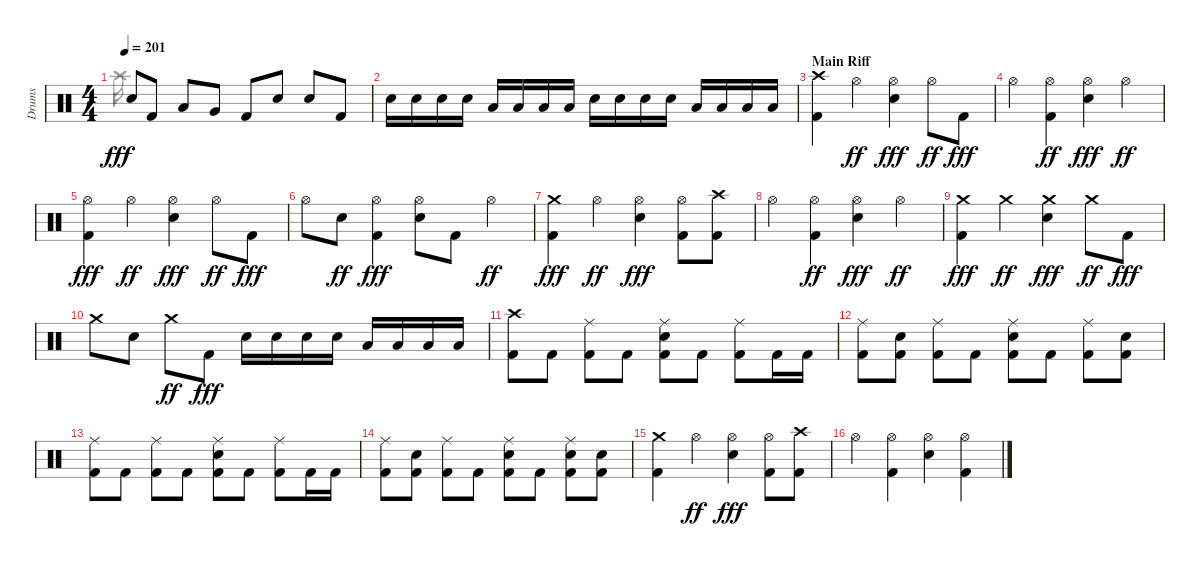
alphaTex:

\track ("Drums" "Drums") {instrument percussion}
\staff {score}
\articulation defaults
\voice
\ts (4 4)
\tempo 201
\clef neutral
\ks aminor "Snare (hit) 2".8{dy fff} "Kick (hit) 2".8 "Low Tom (hit)".8 "Very Low Tom (hit)".8 "Kick (hit) 2".8 "Snare (hit) 2".8 "Snare (hit) 2".8 "Kick (hit) 2".8
|
"Snare (hit) 2".16 "Snare (hit) 2".16 "Snare (hit) 2".16 "Snare (hit) 2".16 "Low Tom (hit)".16 "Low Tom (hit)".16 "Low Tom (hit)".16 "Low Tom (hit)".16 "Snare (hit) 2".16 "Snare (hit) 2".16 "Snare (hit) 2".16 "Snare (hit) 2".16 "Low Floor Tom (hit)".16 "Low Floor Tom (hit)".16 "Low Floor Tom (hit)".16 "Low Floor Tom (hit)".16 |
\section ("" "Main Riff")
("Kick (hit) 2" "Crash high (hit)").4 "Hi-Hat (open)".4{dy ff} ("Snare (hit) 2" "Hi-Hat (open)").4{dy fff} "Hi-Hat (open)".8{dy ff} "Kick (hit) 2".8{dy fff} |
"Hi-Hat (open)".4 ("Kick (hit) 2" "Hi-Hat (open)").4{dy ff} ("Hi-Hat (open)" "Snare (hit) 2").4{dy fff} "Hi-Hat (open)".4{dy ff} |
("Kick (hit) 2" "Hi-Hat (open)").4{dy fff} "Hi-Hat (open)".4{dy ff} ("Snare (hit) 2" "Hi-Hat (open)").4{dy fff} "Hi-Hat (open)".8{dy ff} "Kick (hit) 2".8{dy fff} |
"Hi-Hat (open)".8 "Snare (hit) 2".8{dy ff} ("Hi-Hat (open)" "Kick (hit) 2").4{dy fff} ("Snare (hit) 2" "Hi-Hat (open)").8 "Kick (hit) 2".8 "Hi-Hat (open)".4{dy ff} |
("Kick (hit) 2" "Crash medium (hit)").4{dy fff} "Hi-Hat (open)".4{dy ff} ("Snare (hit) 2" "Hi-Hat (open)").4{dy fff} ("Kick (hit) 2" "Hi-Hat (open)").8 ("Crash high (hit)" "Kick (hit) 2").8 |
"Hi-Hat (open)".4 ("Hi-Hat (open)" "Kick (hit) 2").4{dy ff} ("Snare (hit) 2" "Hi-Hat (open)").4{dy fff} "Hi-Hat (open)".4{dy ff} |
("Crash medium (hit)" "Kick (hit) 2").4{dy fff} "Crash medium (hit)".4{dy ff} ("Snare (hit) 2" "Crash medium (hit)").4{dy fff} "Crash medium (hit)".8{dy ff} "Kick (hit) 2".8{dy fff} |
"Crash medium (hit)".8 "Snare (hit) 2".8 "Crash medium (hit)".8{dy ff} "Kick (hit) 2".8{dy fff} "Snare (hit) 2".16 "Snare (hit) 2".16 "Snare (hit) 2".16 "Snare (hit) 2".16 "Low Floor Tom (hit)".16 "Low Floor Tom (hit)".16 "Low Floor Tom (hit)".16 "Low Floor Tom (hit)".16 |
("Kick (hit) 2" "Crash high (hit)").8 "Kick (hit) 2".8 ("Ride (middle)" "Kick (hit) 2").8 "Kick (hit) 2".8 ("Ride (middle)" "Snare (hit) 2" "Kick (hit) 2").8 "Kick (hit) 2".8 ("Kick (hit) 2" "Ride (middle)").8 "Kick (hit) 2".16 "Kick (hit) 2".16 |
("Kick (hit) 2" "Ride (middle)").8 ("Snare (hit) 2" "Kick (hit) 2").8 ("Ride (middle)" "Kick (hit) 2").8 "Kick (hit) 2".8 ("Ride (middle)" "Snare (hit) 2" "Kick (hit) 2").8 "Kick (hit) 2".8 ("Kick (hit) 2" "Ride (middle)").8 ("Snare (hit) 2" "Kick (hit) 2").8 |
("Kick (hit) 2" "Ride (middle)").8 "Kick (hit) 2".8 ("Kick (hit) 2" "Ride (middle)").8 "Kick (hit) 2".8 ("Snare (hit) 2" "Kick (hit) 2" "Ride (middle)").8 "Kick (hit) 2".8 ("Kick (hit) 2" "Ride (middle)").8 "Kick (hit) 2".16 "Kick (hit) 2".16 |
("Ride (middle)" "Kick (hit) 2").8 ("Snare (hit) 2" "Kick (hit) 2").8 ("Kick (hit) 2" "Ride (middle)").8 "Kick (hit) 2".8 ("Ride (middle)" "Snare (hit) 2" "Kick (hit) 2").8 "Kick (hit) 2".8 ("Ride (middle)" "Kick (hit) 2" "Snare (hit) 2").8 ("Kick (hit) 2" "Snare (hit) 2").8 |
("Kick (hit) 2" "Crash medium (hit)").4 "Hi-Hat (open)".4{dy ff} ("Snare (hit) 2" "Hi-Hat (open)").4{dy fff} ("Kick (hit) 2" "Hi-Hat (open)").8 ("Crash high (hit)" "Kick (hit) 2").8 |
"Hi-Hat (open)".4 ("Kick (hit) 2" "Hi-Hat (open)").4 ("Snare (hit) 2" "Hi-Hat (open)").4 ("Kick (hit) 2" "Hi-Hat (open)").4
\voice
\clef neutral
\ottava regular
\simile none
\ks aminor "Crash high (hit)".16{dy fff}
|
|
|
|
|
|
|
|
|
|
|
|
|
|
|
